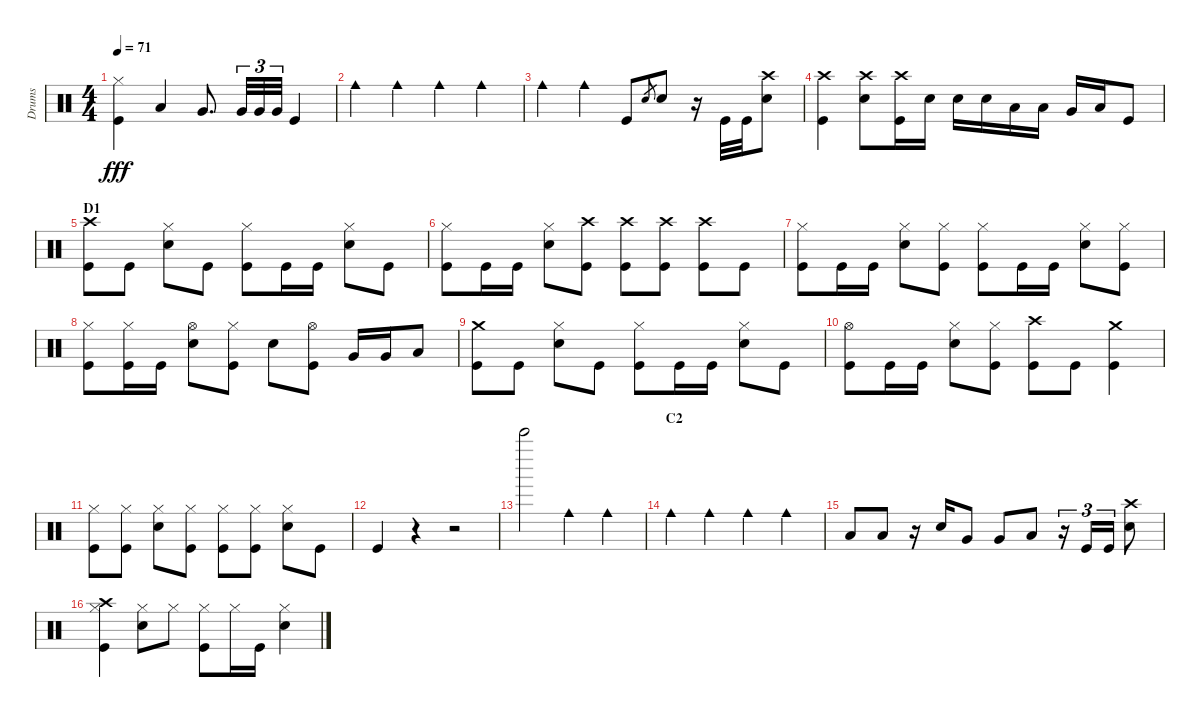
\track ("Drums" "Drums") {instrument percussion}
\staff {score}
\articulation defaults
\ts (4 4)
\tempo 71
\clef neutral
\ks c
("Hi-Hat (closed)" "Kick (hit)").4{dy fff} "Low Tom (hit)".4 "Very Low Tom (hit)".8{d} "Very Low Tom (hit)".32{tu (3 2)} "Very Low Tom (hit)".32{tu (3 2)} "Very Low Tom (hit)".32{tu (3 2)} "Kick (hit)".4 |
"Cowbell medium (hit)".4 "Cowbell medium (hit)".4 "Cowbell medium (hit)".4 "Cowbell medium (hit)".4 |
"Cowbell medium (hit)".4 "Cowbell medium (hit)".4 "Kick (hit)".8 "Electric Snare (hit)".8{gr} "Electric Snare (hit)".8 r.16 "Kick (hit)".32 "Kick (hit)".32 ("Crash high (hit)" "Electric Snare (hit)").8 |
("Crash high (hit)" "Kick (hit)").4 ("Crash high (hit)" "Electric Snare (hit)").8 ("Crash high (hit)" "Kick (hit)").16 "Electric Snare (hit)".16 "Electric Snare (hit)".16 "Electric Snare (hit)".16 "Low Tom (hit)".16 "Low Tom (hit)".16 "Very Low Tom (hit)".16 "Low Floor Tom (hit)".16 "Kick (hit)".8 |
\section ("" "D1")
("Crash high (hit)" "Kick (hit)").8 "Kick (hit)".8 ("Hi-Hat (closed)" "Electric Snare (hit)").8 "Kick (hit)".8 ("Hi-Hat (closed)" "Kick (hit)").8 "Kick (hit)".16 "Kick (hit)".16 ("Hi-Hat (closed)" "Electric Snare (hit)").8 "Kick (hit)".8 |
("Hi-Hat (closed)" "Kick (hit)").8 "Kick (hit)".16 "Kick (hit)".16 ("Hi-Hat (closed)" "Electric Snare (hit)").8 ("Crash high (hit)" "Kick (hit)").8 ("Crash high (hit)" "Kick (hit)").8 ("Crash high (hit)" "Kick (hit)").8 ("Crash high (hit)" "Kick (hit)").8 "Kick (hit)".8 |
("Hi-Hat (closed)" "Kick (hit)").8 "Kick (hit)".16 "Kick (hit)".16 ("Hi-Hat (closed)" "Electric Snare (hit)").8 ("Hi-Hat (closed)" "Kick (hit)").8 ("Hi-Hat (closed)" "Kick (hit)").8 "Kick (hit)".16 "Kick (hit)".16 ("Hi-Hat (closed)" "Electric Snare (hit)").8 ("Hi-Hat (closed)" "Kick (hit)").8 |
("Hi-Hat (closed)" "Kick (hit)").8 ("Hi-Hat (closed)" "Kick (hit)").16 "Kick (hit)".16 ("Hi-Hat (open)" "Electric Snare (hit)").8 ("Hi-Hat (closed)" "Kick (hit)").8 "Electric Snare (hit)".8 ("Hi-Hat (open)" "Kick (hit)").8 "Very Low Tom (hit)".16 "Very Low Tom (hit)".16 "Low Floor Tom (hit)".8 |
("Crash medium (hit)" "Kick (hit)").8 "Kick (hit)".8 ("Hi-Hat (closed)" "Electric Snare (hit)").8 "Kick (hit)".8 ("Hi-Hat (closed)" "Kick (hit)").8 "Kick (hit)".16 "Kick (hit)".16 ("Hi-Hat (closed)" "Electric Snare (hit)").8 "Kick (hit)".8 |
("Hi-Hat (open)" "Kick (hit)").8 "Kick (hit)".16 "Kick (hit)".16 ("Hi-Hat (closed)" "Electric Snare (hit)").8 ("Hi-Hat (closed)" "Kick (hit)").8 ("Crash high (hit)" "Kick (hit)").8 "Kick (hit)".8 ("Crash medium (hit)" "Kick (hit)").4 |
("Hi-Hat (closed)" "Kick (hit)").8 ("Hi-Hat (closed)" "Kick (hit)").8 ("Hi-Hat (closed)" "Electric Snare (hit)").8 ("Hi-Hat (closed)" "Kick (hit)").8 ("Hi-Hat (closed)" "Kick (hit)").8 ("Hi-Hat (closed)" "Kick (hit)").8 ("Hi-Hat (closed)" "Electric Snare (hit)").8 "Kick (hit)".8 |
"Kick (hit)".4 r.4 r.2 |
"Bell Tree (hit)".2 "Cowbell medium (hit)".4 "Cowbell medium (hit)".4 |
\section ("" "C2")
"Cowbell medium (hit)".4 "Cowbell medium (hit)".4 "Cowbell medium (hit)".4 "Cowbell medium (hit)".4 |
"Low Floor Tom (hit)".8 "Low Tom (hit)".8 r.16 "Electric Snare (hit)".16 "Very Low Tom (hit)".8 "Very Low Tom (hit)".8 "Low Floor Tom (hit)".8 r.16{tu (3 2)} "Kick (hit)".16{tu (3 2)} "Kick (hit)".16{tu (3 2)} ("Crash high (hit)" "Electric Snare (hit)").8 |
("Hi-Hat (closed)" "Crash high (hit)" "Kick (hit)").4 ("Hi-Hat (closed)" "Electric Snare (hit)").8 "Hi-Hat (closed)".8 ("Hi-Hat (closed)" "Kick (hit)").8 "Hi-Hat (closed)".16 "Kick (hit)".16 ("Hi-Hat (closed)" "Electric Snare (hit)").4
